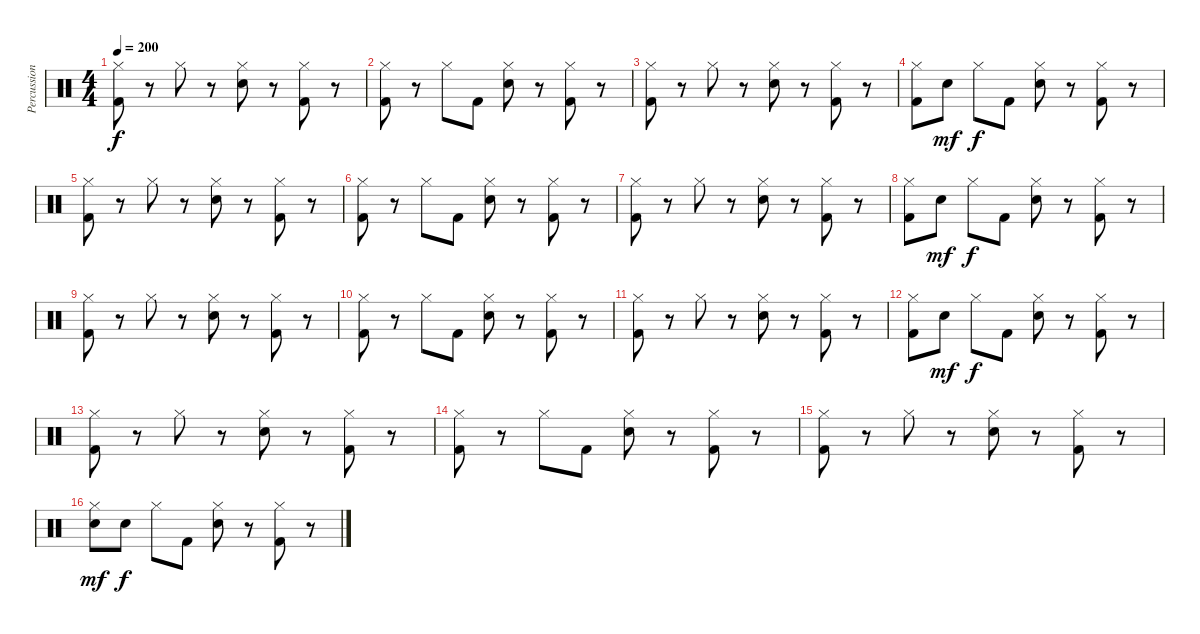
\track ("Percussion" "Percussion") {instrument percussion}
\staff {score}
\articulation defaults
\ts (4 4)
\tempo 200
\clef neutral
\ks c
("Kick (hit) 2" "Hi-Hat (closed)").8{dy f} r.8 "Hi-Hat (closed)".8 r.8 ("Snare (hit) 2" "Hi-Hat (closed)").8 r.8 ("Hi-Hat (closed)" "Kick (hit) 2").8 r.8 |
("Kick (hit) 2" "Hi-Hat (closed)").8 r.8 "Hi-Hat (closed)".8 "Kick (hit) 2".8 ("Snare (hit) 2" "Hi-Hat (closed)").8 r.8 ("Kick (hit) 2" "Hi-Hat (closed)").8 r.8 |
("Kick (hit) 2" "Hi-Hat (closed)").8 r.8 "Hi-Hat (closed)".8 r.8 ("Snare (hit) 2" "Hi-Hat (closed)").8 r.8 ("Hi-Hat (closed)" "Kick (hit) 2").8 r.8 |
("Kick (hit) 2" "Hi-Hat (closed)").8 "Snare (hit) 2".8{dy mf} "Hi-Hat (closed)".8{dy f} "Kick (hit) 2".8 ("Snare (hit) 2" "Hi-Hat (closed)").8 r.8 ("Kick (hit) 2" "Hi-Hat (closed)").8 r.8 |
("Kick (hit) 2" "Hi-Hat (closed)").8 r.8 "Hi-Hat (closed)".8 r.8 ("Snare (hit) 2" "Hi-Hat (closed)").8 r.8 ("Hi-Hat (closed)" "Kick (hit) 2").8 r.8 |
("Kick (hit) 2" "Hi-Hat (closed)").8 r.8 "Hi-Hat (closed)".8 "Kick (hit) 2".8 ("Snare (hit) 2" "Hi-Hat (closed)").8 r.8 ("Kick (hit) 2" "Hi-Hat (closed)").8 r.8 |
("Kick (hit) 2" "Hi-Hat (closed)").8 r.8 "Hi-Hat (closed)".8 r.8 ("Snare (hit) 2" "Hi-Hat (closed)").8 r.8 ("Hi-Hat (closed)" "Kick (hit) 2").8 r.8 |
("Kick (hit) 2" "Hi-Hat (closed)").8 "Snare (hit) 2".8{dy mf} "Hi-Hat (closed)".8{dy f} "Kick (hit) 2".8 ("Snare (hit) 2" "Hi-Hat (closed)").8 r.8 ("Kick (hit) 2" "Hi-Hat (closed)").8 r.8 |
("Kick (hit) 2" "Hi-Hat (closed)").8 r.8 "Hi-Hat (closed)".8 r.8 ("Snare (hit) 2" "Hi-Hat (closed)").8 r.8 ("Hi-Hat (closed)" "Kick (hit) 2").8 r.8 |
("Kick (hit) 2" "Hi-Hat (closed)").8 r.8 "Hi-Hat (closed)".8 "Kick (hit) 2".8 ("Snare (hit) 2" "Hi-Hat (closed)").8 r.8 ("Kick (hit) 2" "Hi-Hat (closed)").8 r.8 |
("Kick (hit) 2" "Hi-Hat (closed)").8 r.8 "Hi-Hat (closed)".8 r.8 ("Snare (hit) 2" "Hi-Hat (closed)").8 r.8 ("Hi-Hat (closed)" "Kick (hit) 2").8 r.8 |
("Kick (hit) 2" "Hi-Hat (closed)").8 "Snare (hit) 2".8{dy mf} "Hi-Hat (closed)".8{dy f} "Kick (hit) 2".8 ("Snare (hit) 2" "Hi-Hat (closed)").8 r.8 ("Kick (hit) 2" "Hi-Hat (closed)").8 r.8 |
("Kick (hit) 2" "Hi-Hat (closed)").8 r.8 "Hi-Hat (closed)".8 r.8 ("Snare (hit) 2" "Hi-Hat (closed)").8 r.8 ("Hi-Hat (closed)" "Kick (hit) 2").8 r.8 |
("Kick (hit) 2" "Hi-Hat (closed)").8 r.8 "Hi-Hat (closed)".8 "Kick (hit) 2".8 ("Snare (hit) 2" "Hi-Hat (closed)").8 r.8 ("Kick (hit) 2" "Hi-Hat (closed)").8 r.8 |
("Kick (hit) 2" "Hi-Hat (closed)").8 r.8 "Hi-Hat (closed)".8 r.8 ("Snare (hit) 2" "Hi-Hat (closed)").8 r.8 ("Hi-Hat (closed)" "Kick (hit) 2").8 r.8 |
("Snare (hit) 2" "Hi-Hat (closed)").8{dy mf} "Snare (hit) 2".8{dy f} "Hi-Hat (closed)".8 "Kick (hit) 2".8 ("Snare (hit) 2" "Hi-Hat (closed)").8 r.8 ("Kick (hit) 2" "Hi-Hat (closed)").8 r.8
